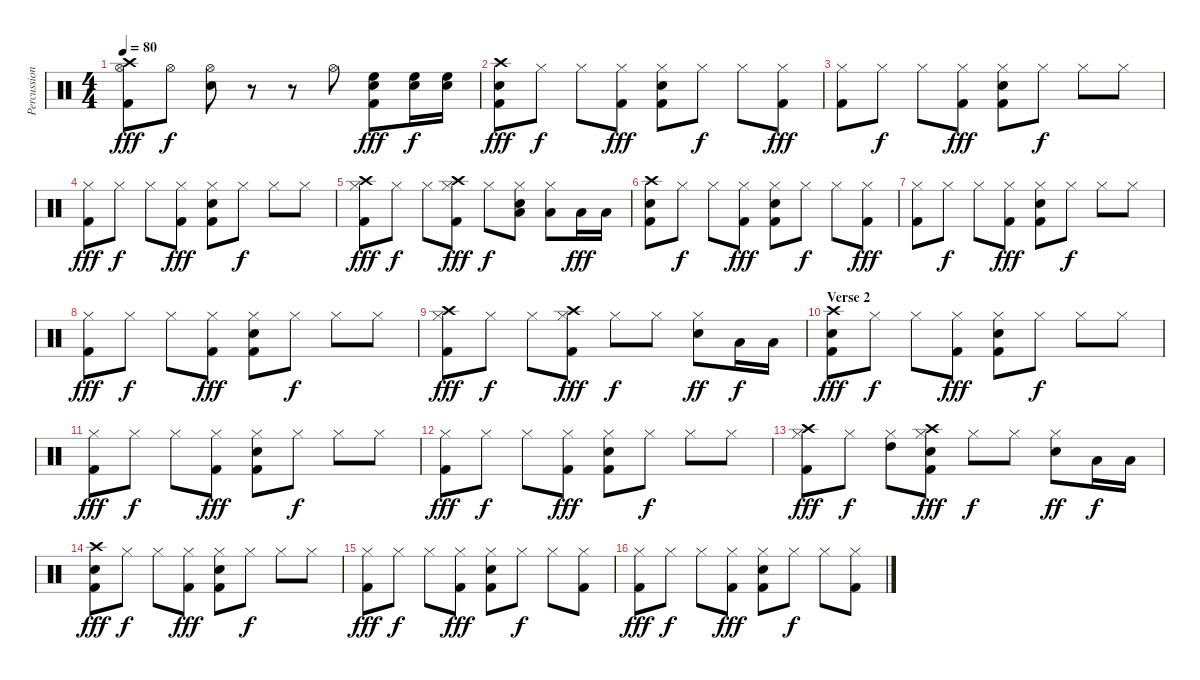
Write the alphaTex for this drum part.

\track ("Percussion" "Percussion") {instrument percussion}
\staff {score}
\articulation defaults
\ts (4 4)
\tempo 80
\clef neutral
\ks c
("Crash high (hit)" "Kick (hit) 2" "Hi-Hat (open)").8{dy fff} "Hi-Hat (open)".8{dy f} ("Snare (hit) 2" "Hi-Hat (open)").8 r.8 r.8 "Hi-Hat (open)".8 ("High Floor Tom (hit)" "Snare (hit) 2" "Kick (hit) 2").8{dy fff} ("High Floor Tom (hit)" "Snare (hit) 2").16{dy f} ("High Floor Tom (hit)" "Snare (hit) 2").16 |
("Crash high (hit)" "Snare (hit) 2" "Kick (hit) 2").8{dy fff} "Hi-Hat (closed)".8{dy f} "Hi-Hat (closed)".8 ("Kick (hit) 2" "Hi-Hat (closed)").8{dy fff} ("Snare (hit) 2" "Kick (hit) 2" "Hi-Hat (closed)").8 "Hi-Hat (closed)".8{dy f} "Hi-Hat (closed)".8 ("Kick (hit) 2" "Hi-Hat (closed)").8{dy fff} |
("Kick (hit) 2" "Hi-Hat (closed)").8 "Hi-Hat (closed)".8{dy f} "Hi-Hat (closed)".8 ("Kick (hit) 2" "Hi-Hat (closed)").8{dy fff} ("Snare (hit) 2" "Kick (hit) 2" "Hi-Hat (closed)").8 "Hi-Hat (closed)".8{dy f} "Hi-Hat (closed)".8 "Hi-Hat (closed)".8 |
("Kick (hit) 2" "Hi-Hat (closed)").8{dy fff} "Hi-Hat (closed)".8{dy f} "Hi-Hat (closed)".8 ("Kick (hit) 2" "Hi-Hat (closed)").8{dy fff} ("Snare (hit) 2" "Kick (hit) 2" "Hi-Hat (closed)").8 "Hi-Hat (closed)".8{dy f} "Hi-Hat (closed)".8 "Hi-Hat (closed)".8 |
("Crash high (hit)" "Kick (hit) 2" "Hi-Hat (closed)").8{dy fff} "Hi-Hat (closed)".8{dy f} "Hi-Hat (closed)".8 ("Crash high (hit)" "Kick (hit) 2" "Hi-Hat (closed)").8{dy fff} "Hi-Hat (closed)".8{dy f} ("Snare (hit) 2" "Low Tom (hit)" "Hi-Hat (closed)").8 ("Low Floor Tom (hit)" "Hi-Hat (closed)").8 "Low Tom (hit)".16{dy fff} "Low Floor Tom (hit)".16 |
("Crash high (hit)" "Snare (hit) 2" "Kick (hit) 2").8 "Hi-Hat (closed)".8{dy f} "Hi-Hat (closed)".8 ("Kick (hit) 2" "Hi-Hat (closed)").8{dy fff} ("Snare (hit) 2" "Kick (hit) 2" "Hi-Hat (closed)").8 "Hi-Hat (closed)".8{dy f} "Hi-Hat (closed)".8 ("Kick (hit) 2" "Hi-Hat (closed)").8{dy fff} |
("Kick (hit) 2" "Hi-Hat (closed)").8 "Hi-Hat (closed)".8{dy f} "Hi-Hat (closed)".8 ("Kick (hit) 2" "Hi-Hat (closed)").8{dy fff} ("Snare (hit) 2" "Kick (hit) 2" "Hi-Hat (closed)").8 "Hi-Hat (closed)".8{dy f} "Hi-Hat (closed)".8 "Hi-Hat (closed)".8 |
("Kick (hit) 2" "Hi-Hat (closed)").8{dy fff} "Hi-Hat (closed)".8{dy f} "Hi-Hat (closed)".8 ("Kick (hit) 2" "Hi-Hat (closed)").8{dy fff} ("Snare (hit) 2" "Kick (hit) 2" "Hi-Hat (closed)").8 "Hi-Hat (closed)".8{dy f} "Hi-Hat (closed)".8 "Hi-Hat (closed)".8 |
("Crash high (hit)" "Kick (hit) 2" "Hi-Hat (closed)").8{dy fff} "Hi-Hat (closed)".8{dy f} "Hi-Hat (closed)".8 ("Crash high (hit)" "Kick (hit) 2" "Hi-Hat (closed)").8{dy fff} "Hi-Hat (closed)".8{dy f} "Hi-Hat (closed)".8 ("Snare (hit) 2" "Hi-Hat (closed)").8{dy ff} "Low Tom (hit)".16{dy f} "Low Floor Tom (hit)".16 |
\section ("" "Verse 2")
("Crash high (hit)" "Snare (hit) 2" "Kick (hit) 2").8{dy fff} "Hi-Hat (closed)".8{dy f} "Hi-Hat (closed)".8 ("Kick (hit) 2" "Hi-Hat (closed)").8{dy fff} ("Snare (hit) 2" "Kick (hit) 2" "Hi-Hat (closed)").8 "Hi-Hat (closed)".8{dy f} "Hi-Hat (closed)".8 "Hi-Hat (closed)".8 |
("Kick (hit) 2" "Hi-Hat (closed)").8{dy fff} "Hi-Hat (closed)".8{dy f} "Hi-Hat (closed)".8 ("Kick (hit) 2" "Hi-Hat (closed)").8{dy fff} ("Snare (hit) 2" "Kick (hit) 2" "Hi-Hat (closed)").8 "Hi-Hat (closed)".8{dy f} "Hi-Hat (closed)".8 "Hi-Hat (closed)".8 |
("Kick (hit) 2" "Hi-Hat (closed)").8{dy fff} "Hi-Hat (closed)".8{dy f} "Hi-Hat (closed)".8 ("Kick (hit) 2" "Hi-Hat (closed)").8{dy fff} ("Snare (hit) 2" "Kick (hit) 2" "Hi-Hat (closed)").8 "Hi-Hat (closed)".8{dy f} "Hi-Hat (closed)".8 "Hi-Hat (closed)".8 |
("Crash high (hit)" "Kick (hit) 2" "Hi-Hat (closed)").8{dy fff} "Hi-Hat (closed)".8{dy f} ("High Tom (hit)" "Hi-Hat (closed)").8 ("Crash high (hit)" "Snare (hit) 2" "Kick (hit) 2" "Hi-Hat (closed)").8{dy fff} "Hi-Hat (closed)".8{dy f} "Hi-Hat (closed)".8 ("Snare (hit) 2" "Hi-Hat (closed)").8{dy ff} "Low Tom (hit)".16{dy f} "Low Floor Tom (hit)".16 |
("Crash high (hit)" "Snare (hit) 2" "Kick (hit) 2").8{dy fff} "Hi-Hat (closed)".8{dy f} "Hi-Hat (closed)".8 ("Kick (hit) 2" "Hi-Hat (closed)").8{dy fff} ("Snare (hit) 2" "Kick (hit) 2" "Hi-Hat (closed)").8 "Hi-Hat (closed)".8{dy f} "Hi-Hat (closed)".8 "Hi-Hat (closed)".8 |
("Kick (hit) 2" "Hi-Hat (closed)").8{dy fff} "Hi-Hat (closed)".8{dy f} "Hi-Hat (closed)".8 ("Kick (hit) 2" "Hi-Hat (closed)").8{dy fff} ("Snare (hit) 2" "Kick (hit) 2" "Hi-Hat (closed)").8 "Hi-Hat (closed)".8{dy f} "Hi-Hat (closed)".8 ("Kick (hit) 2" "Hi-Hat (closed)").8 |
("Kick (hit) 2" "Hi-Hat (closed)").8{dy fff} "Hi-Hat (closed)".8{dy f} "Hi-Hat (closed)".8 ("Kick (hit) 2" "Hi-Hat (closed)").8{dy fff} ("Snare (hit) 2" "Kick (hit) 2" "Hi-Hat (closed)").8 "Hi-Hat (closed)".8{dy f} "Hi-Hat (closed)".8 ("Kick (hit) 2" "Hi-Hat (closed)").8
